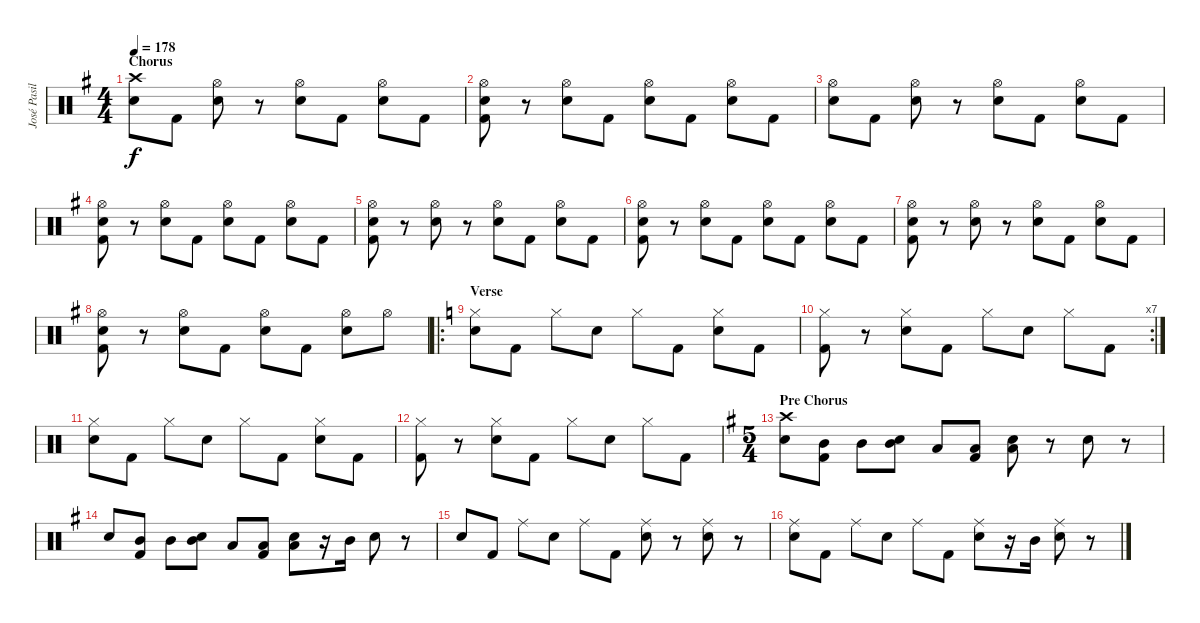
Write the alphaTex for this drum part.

\track ("José Pasillas [Drums]" "José Pasil") {instrument percussion}
\staff {score}
\articulation defaults
\ts (4 4)
\section ("" "Chorus")
\tempo 178
\clef neutral
\ks g
("Electric Snare (hit)" "Crash high (hit)").8{dy f} "Kick (hit) 2".8 ("Electric Snare (hit)" "Hi-Hat (open)").8 r.8 ("Electric Snare (hit)" "Hi-Hat (open)").8 "Kick (hit) 2".8 ("Electric Snare (hit)" "Hi-Hat (open)").8 "Kick (hit) 2".8 |
("Kick (hit) 2" "Electric Snare (hit)" "Hi-Hat (open)").8 r.8 ("Electric Snare (hit)" "Hi-Hat (open)").8 "Kick (hit) 2".8 ("Electric Snare (hit)" "Hi-Hat (open)").8 "Kick (hit) 2".8 ("Electric Snare (hit)" "Hi-Hat (open)").8 "Kick (hit) 2".8 |
("Electric Snare (hit)" "Hi-Hat (open)").8 "Kick (hit) 2".8 ("Electric Snare (hit)" "Hi-Hat (open)").8 r.8 ("Electric Snare (hit)" "Hi-Hat (open)").8 "Kick (hit) 2".8 ("Electric Snare (hit)" "Hi-Hat (open)").8 "Kick (hit) 2".8 |
("Kick (hit) 2" "Electric Snare (hit)" "Hi-Hat (open)").8 r.8 ("Electric Snare (hit)" "Hi-Hat (open)").8 "Kick (hit) 2".8 ("Electric Snare (hit)" "Hi-Hat (open)").8 "Kick (hit) 2".8 ("Electric Snare (hit)" "Hi-Hat (open)").8 "Kick (hit) 2".8 |
("Kick (hit) 2" "Electric Snare (hit)" "Hi-Hat (open)").8 r.8 ("Electric Snare (hit)" "Hi-Hat (open)").8 r.8 ("Electric Snare (hit)" "Hi-Hat (open)").8 "Kick (hit) 2".8 ("Electric Snare (hit)" "Hi-Hat (open)").8 "Kick (hit) 2".8 |
("Kick (hit) 2" "Electric Snare (hit)" "Hi-Hat (open)").8 r.8 ("Electric Snare (hit)" "Hi-Hat (open)").8 "Kick (hit) 2".8 ("Electric Snare (hit)" "Hi-Hat (open)").8 "Kick (hit) 2".8 ("Electric Snare (hit)" "Hi-Hat (open)").8 "Kick (hit) 2".8 |
("Kick (hit) 2" "Electric Snare (hit)" "Hi-Hat (open)").8 r.8 ("Electric Snare (hit)" "Hi-Hat (open)").8 r.8 ("Electric Snare (hit)" "Hi-Hat (open)").8 "Kick (hit) 2".8 ("Electric Snare (hit)" "Hi-Hat (open)").8 "Kick (hit) 2".8 |
("Kick (hit) 2" "Electric Snare (hit)" "Hi-Hat (open)").8 r.8 ("Electric Snare (hit)" "Hi-Hat (open)").8 "Kick (hit) 2".8 ("Electric Snare (hit)" "Hi-Hat (open)").8 "Kick (hit) 2".8 ("Electric Snare (hit)" "Hi-Hat (open)").8 "Hi-Hat (open)".8 |
\ro
\section ("" "Verse")
\ks c
("Electric Snare (hit)" "Hi-Hat (closed)").8 "Kick (hit) 2".8 "Hi-Hat (closed)".8 "Electric Snare (hit)".8 "Hi-Hat (closed)".8 "Kick (hit) 2".8 ("Electric Snare (hit)" "Hi-Hat (closed)").8 "Kick (hit) 2".8 |
\rc 7
("Kick (hit) 2" "Hi-Hat (closed)").8 r.8 ("Electric Snare (hit)" "Hi-Hat (closed)").8 "Kick (hit) 2".8 "Hi-Hat (closed)".8 "Electric Snare (hit)".8 "Hi-Hat (closed)".8 "Kick (hit) 2".8 |
("Electric Snare (hit)" "Hi-Hat (closed)").8 "Kick (hit) 2".8 "Hi-Hat (closed)".8 "Electric Snare (hit)".8 "Hi-Hat (closed)".8 "Kick (hit) 2".8 ("Electric Snare (hit)" "Hi-Hat (closed)").8 "Kick (hit) 2".8 |
("Kick (hit) 2" "Hi-Hat (closed)").8 r.8 ("Electric Snare (hit)" "Hi-Hat (closed)").8 "Kick (hit) 2".8 "Hi-Hat (closed)".8 "Electric Snare (hit)".8 "Hi-Hat (closed)".8 "Kick (hit) 2".8 |
\ts (5 4)
\section ("" "Pre Chorus")
\ks g
("Electric Snare (hit)" "Crash high (hit)").8 ("Kick (hit) 2" "Mid Tom (hit)").8 "Mid Tom (hit)".8 ("Electric Snare (hit)" "Mid Tom (hit)").8 "Low Tom (hit)".8 ("Kick (hit) 2" "Low Tom (hit)").8 ("Electric Snare (hit)" "Low Tom (hit)").8 r.8 "Electric Snare (hit)".8 r.8 |
"Electric Snare (hit)".8 ("Kick (hit) 2" "Mid Tom (hit)").8 "Mid Tom (hit)".8 ("Electric Snare (hit)" "Mid Tom (hit)").8 "Low Tom (hit)".8 ("Kick (hit) 2" "Low Tom (hit)").8 ("Electric Snare (hit)" "Low Tom (hit)").8 r.16 "Mid Tom (hit)".16 "Electric Snare (hit)".8 r.8 |
"Electric Snare (hit)".8 "Kick (hit) 2".8 "Ride (middle)".8 "Electric Snare (hit)".8 "Ride (middle)".8 "Kick (hit) 2".8 ("Electric Snare (hit)" "Ride (middle)").8 r.8 ("Electric Snare (hit)" "Ride (middle)").8 r.8 |
("Electric Snare (hit)" "Ride (middle)").8 "Kick (hit) 2".8 "Ride (middle)".8 "Electric Snare (hit)".8 "Ride (middle)".8 "Kick (hit) 2".8 ("Electric Snare (hit)" "Ride (middle)").8 r.16 "Mid Tom (hit)".16 ("Electric Snare (hit)" "Ride (middle)").8 r.8
